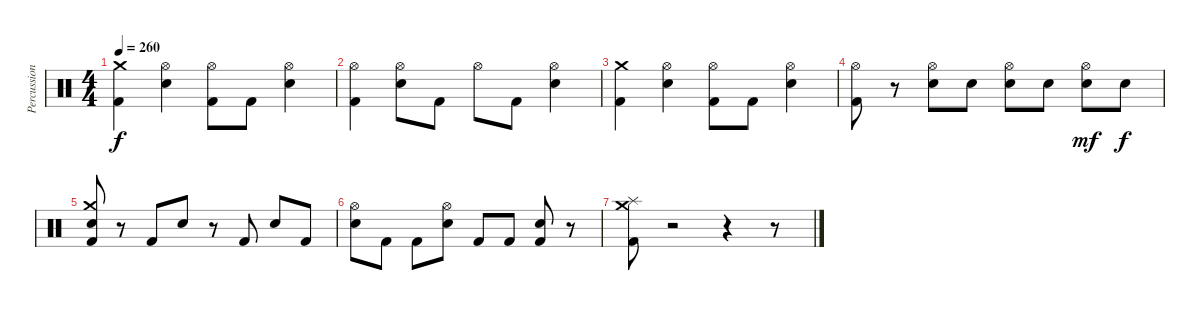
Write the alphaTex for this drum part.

\track ("Percussion" "Percussion") {instrument percussion}
\staff {score}
\articulation defaults
\ts (4 4)
\tempo 260
\clef neutral
\ks c
("Kick (hit) 2" "Crash medium (hit)").4{dy f} ("Electric Snare (hit)" "Hi-Hat (open)").4 ("Kick (hit) 2" "Hi-Hat (open)").8 "Kick (hit) 2".8 ("Electric Snare (hit)" "Hi-Hat (open)").4 |
("Kick (hit) 2" "Hi-Hat (open)").4 ("Electric Snare (hit)" "Hi-Hat (open)").8 "Kick (hit) 2".8 "Hi-Hat (open)".8 "Kick (hit) 2".8 ("Electric Snare (hit)" "Hi-Hat (open)").4 |
("Kick (hit) 2" "Crash medium (hit)").4 ("Electric Snare (hit)" "Hi-Hat (open)").4 ("Kick (hit) 2" "Hi-Hat (open)").8 "Kick (hit) 2".8 ("Electric Snare (hit)" "Hi-Hat (open)").4 |
("Kick (hit) 2" "Hi-Hat (open)").8 r.8 ("Electric Snare (hit)" "Hi-Hat (open)").8 "Electric Snare (hit)".8 ("Electric Snare (hit)" "Hi-Hat (open)").8 "Electric Snare (hit)".8 ("Electric Snare (hit)" "Hi-Hat (open)").8{dy mf} "Electric Snare (hit)".8{dy f} |
("Electric Snare (hit)" "Kick (hit) 2" "Crash medium (hit)").8 r.8 "Kick (hit) 2".8 "Electric Snare (hit)".8 r.8 "Kick (hit) 2".8 "Electric Snare (hit)".8 "Kick (hit) 2".8 |
("Hi-Hat (open)" "Electric Snare (hit)").8 "Kick (hit) 2".8 "Kick (hit) 2".8 ("Hi-Hat (open)" "Electric Snare (hit)").8 "Kick (hit) 2".8 "Kick (hit) 2".8 ("Kick (hit) 2" "Electric Snare (hit)").8 r.8 |
("Crash medium (hit)" "Splash (hit)" "Kick (hit) 2").8 r.2 r.4 r.8
